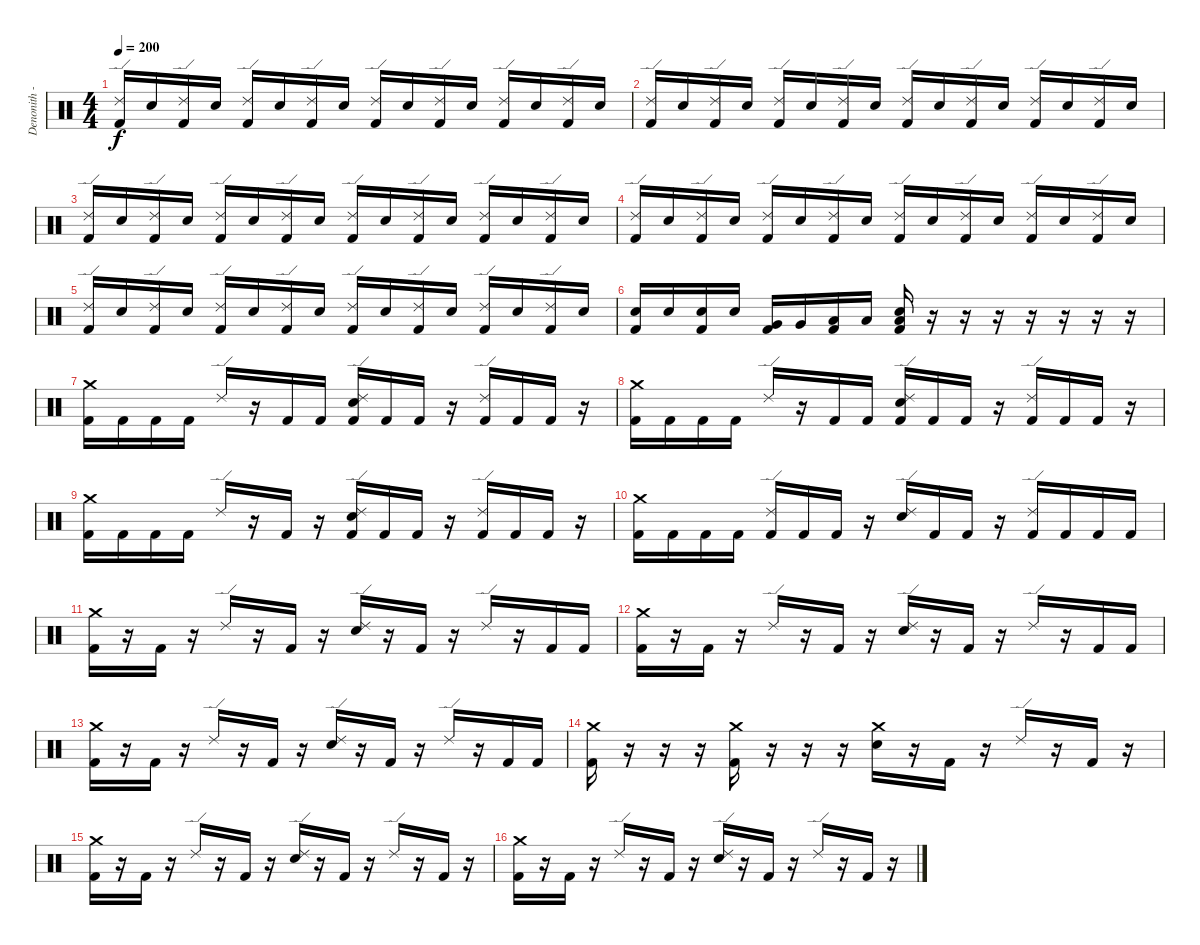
\track ("Denonith - Spyros" "Denonith -") {instrument percussion}
\staff {score}
\articulation defaults
\ts (4 4)
\tempo 200
\clef neutral
\ks c
("Ride (edge) 2" "Kick (hit) 2").16{dy f} "Electric Snare (hit)".16 ("Ride (edge) 2" "Kick (hit) 2").16 "Electric Snare (hit)".16 ("Ride (edge) 2" "Kick (hit) 2").16 "Electric Snare (hit)".16 ("Ride (edge) 2" "Kick (hit) 2").16 "Electric Snare (hit)".16 ("Ride (edge) 2" "Kick (hit) 2").16 "Electric Snare (hit)".16 ("Ride (edge) 2" "Kick (hit) 2").16 "Electric Snare (hit)".16 ("Ride (edge) 2" "Kick (hit) 2").16 "Electric Snare (hit)".16 ("Ride (edge) 2" "Kick (hit) 2").16 "Electric Snare (hit)".16 |
("Ride (edge) 2" "Kick (hit) 2").16 "Electric Snare (hit)".16 ("Ride (edge) 2" "Kick (hit) 2").16 "Electric Snare (hit)".16 ("Ride (edge) 2" "Kick (hit) 2").16 "Electric Snare (hit)".16 ("Ride (edge) 2" "Kick (hit) 2").16 "Electric Snare (hit)".16 ("Ride (edge) 2" "Kick (hit) 2").16 "Electric Snare (hit)".16 ("Ride (edge) 2" "Kick (hit) 2").16 "Electric Snare (hit)".16 ("Ride (edge) 2" "Kick (hit) 2").16 "Electric Snare (hit)".16 ("Ride (edge) 2" "Kick (hit) 2").16 "Electric Snare (hit)".16 |
("Ride (edge) 2" "Kick (hit) 2").16 "Electric Snare (hit)".16 ("Ride (edge) 2" "Kick (hit) 2").16 "Electric Snare (hit)".16 ("Ride (edge) 2" "Kick (hit) 2").16 "Electric Snare (hit)".16 ("Ride (edge) 2" "Kick (hit) 2").16 "Electric Snare (hit)".16 ("Ride (edge) 2" "Kick (hit) 2").16 "Electric Snare (hit)".16 ("Ride (edge) 2" "Kick (hit) 2").16 "Electric Snare (hit)".16 ("Ride (edge) 2" "Kick (hit) 2").16 "Electric Snare (hit)".16 ("Ride (edge) 2" "Kick (hit) 2").16 "Electric Snare (hit)".16 |
("Ride (edge) 2" "Kick (hit) 2").16 "Electric Snare (hit)".16 ("Ride (edge) 2" "Kick (hit) 2").16 "Electric Snare (hit)".16 ("Ride (edge) 2" "Kick (hit) 2").16 "Electric Snare (hit)".16 ("Ride (edge) 2" "Kick (hit) 2").16 "Electric Snare (hit)".16 ("Ride (edge) 2" "Kick (hit) 2").16 "Electric Snare (hit)".16 ("Ride (edge) 2" "Kick (hit) 2").16 "Electric Snare (hit)".16 ("Ride (edge) 2" "Kick (hit) 2").16 "Electric Snare (hit)".16 ("Ride (edge) 2" "Kick (hit) 2").16 "Electric Snare (hit)".16 |
("Ride (edge) 2" "Kick (hit) 2").16 "Electric Snare (hit)".16 ("Ride (edge) 2" "Kick (hit) 2").16 "Electric Snare (hit)".16 ("Ride (edge) 2" "Kick (hit) 2").16 "Electric Snare (hit)".16 ("Ride (edge) 2" "Kick (hit) 2").16 "Electric Snare (hit)".16 ("Ride (edge) 2" "Kick (hit) 2").16 "Electric Snare (hit)".16 ("Ride (edge) 2" "Kick (hit) 2").16 "Electric Snare (hit)".16 ("Ride (edge) 2" "Kick (hit) 2").16 "Electric Snare (hit)".16 ("Ride (edge) 2" "Kick (hit) 2").16 "Electric Snare (hit)".16 |
("Electric Snare (hit)" "Kick (hit) 2").16 "Electric Snare (hit)".16 ("Electric Snare (hit)" "Kick (hit) 2").16 "Electric Snare (hit)".16 ("Very Low Tom (hit)" "Kick (hit) 2").16 "Very Low Tom (hit)".16 ("Low Floor Tom (hit)" "Kick (hit) 2").16 "Low Floor Tom (hit)".16 ("Low Floor Tom (hit)" "Electric Snare (hit)" "Kick (hit) 2").16 r.16 r.16 r.16 r.16 r.16 r.16 r.16 |
("Crash medium (hit)" "Kick (hit) 2").16 "Kick (hit) 2".16 "Kick (hit) 2".16 "Kick (hit) 2".16 "Ride (edge) 2".16 r.16 "Kick (hit) 2".16 "Kick (hit) 2".16 ("Ride (edge) 2" "Electric Snare (hit)" "Kick (hit) 2").16 "Kick (hit) 2".16 "Kick (hit) 2".16 r.16 ("Ride (edge) 2" "Kick (hit) 2").16 "Kick (hit) 2".16 "Kick (hit) 2".16 r.16 |
("Crash medium (hit)" "Kick (hit) 2").16 "Kick (hit) 2".16 "Kick (hit) 2".16 "Kick (hit) 2".16 "Ride (edge) 2".16 r.16 "Kick (hit) 2".16 "Kick (hit) 2".16 ("Ride (edge) 2" "Electric Snare (hit)" "Kick (hit) 2").16 "Kick (hit) 2".16 "Kick (hit) 2".16 r.16 ("Ride (edge) 2" "Kick (hit) 2").16 "Kick (hit) 2".16 "Kick (hit) 2".16 r.16 |
("Crash medium (hit)" "Kick (hit) 2").16 "Kick (hit) 2".16 "Kick (hit) 2".16 "Kick (hit) 2".16 "Ride (edge) 2".16 r.16 "Kick (hit) 2".16 r.16 ("Ride (edge) 2" "Electric Snare (hit)" "Kick (hit) 2").16 "Kick (hit) 2".16 "Kick (hit) 2".16 r.16 ("Ride (edge) 2" "Kick (hit) 2").16 "Kick (hit) 2".16 "Kick (hit) 2".16 r.16 |
("Crash medium (hit)" "Kick (hit) 2").16 "Kick (hit) 2".16 "Kick (hit) 2".16 "Kick (hit) 2".16 ("Ride (edge) 2" "Kick (hit) 2").16 "Kick (hit) 2".16 "Kick (hit) 2".16 r.16 ("Ride (edge) 2" "Electric Snare (hit)").16 "Kick (hit) 2".16 "Kick (hit) 2".16 r.16 ("Ride (edge) 2" "Kick (hit) 2").16 "Kick (hit) 2".16 "Kick (hit) 2".16 "Kick (hit) 2".16 |
("Crash medium (hit)" "Kick (hit) 2").16 r.16 "Kick (hit) 2".16 r.16 "Ride (edge) 2".16 r.16 "Kick (hit) 2".16 r.16 ("Ride (edge) 2" "Electric Snare (hit)").16 r.16 "Kick (hit) 2".16 r.16 "Ride (edge) 2".16 r.16 "Kick (hit) 2".16 "Kick (hit) 2".16 |
("Crash medium (hit)" "Kick (hit) 2").16 r.16 "Kick (hit) 2".16 r.16 "Ride (edge) 2".16 r.16 "Kick (hit) 2".16 r.16 ("Ride (edge) 2" "Electric Snare (hit)").16 r.16 "Kick (hit) 2".16 r.16 "Ride (edge) 2".16 r.16 "Kick (hit) 2".16 "Kick (hit) 2".16 |
("Crash medium (hit)" "Kick (hit) 2").16 r.16 "Kick (hit) 2".16 r.16 "Ride (edge) 2".16 r.16 "Kick (hit) 2".16 r.16 ("Ride (edge) 2" "Electric Snare (hit)").16 r.16 "Kick (hit) 2".16 r.16 "Ride (edge) 2".16 r.16 "Kick (hit) 2".16 "Kick (hit) 2".16 |
("Crash medium (hit)" "Kick (hit) 2").16 r.16 r.16 r.16 ("Crash medium (hit)" "Kick (hit) 2").16 r.16 r.16 r.16 ("Crash medium (hit)" "Electric Snare (hit)").16 r.16 "Kick (hit) 2".16 r.16 "Ride (edge) 2".16 r.16 "Kick (hit) 2".16 r.16 |
("Crash medium (hit)" "Kick (hit) 2").16 r.16 "Kick (hit) 2".16 r.16 "Ride (edge) 2".16 r.16 "Kick (hit) 2".16 r.16 ("Ride (edge) 2" "Electric Snare (hit)").16 r.16 "Kick (hit) 2".16 r.16 "Ride (edge) 2".16 r.16 "Kick (hit) 2".16 r.16 |
("Crash medium (hit)" "Kick (hit) 2").16 r.16 "Kick (hit) 2".16 r.16 "Ride (edge) 2".16 r.16 "Kick (hit) 2".16 r.16 ("Ride (edge) 2" "Electric Snare (hit)").16 r.16 "Kick (hit) 2".16 r.16 "Ride (edge) 2".16 r.16 "Kick (hit) 2".16 r.16
